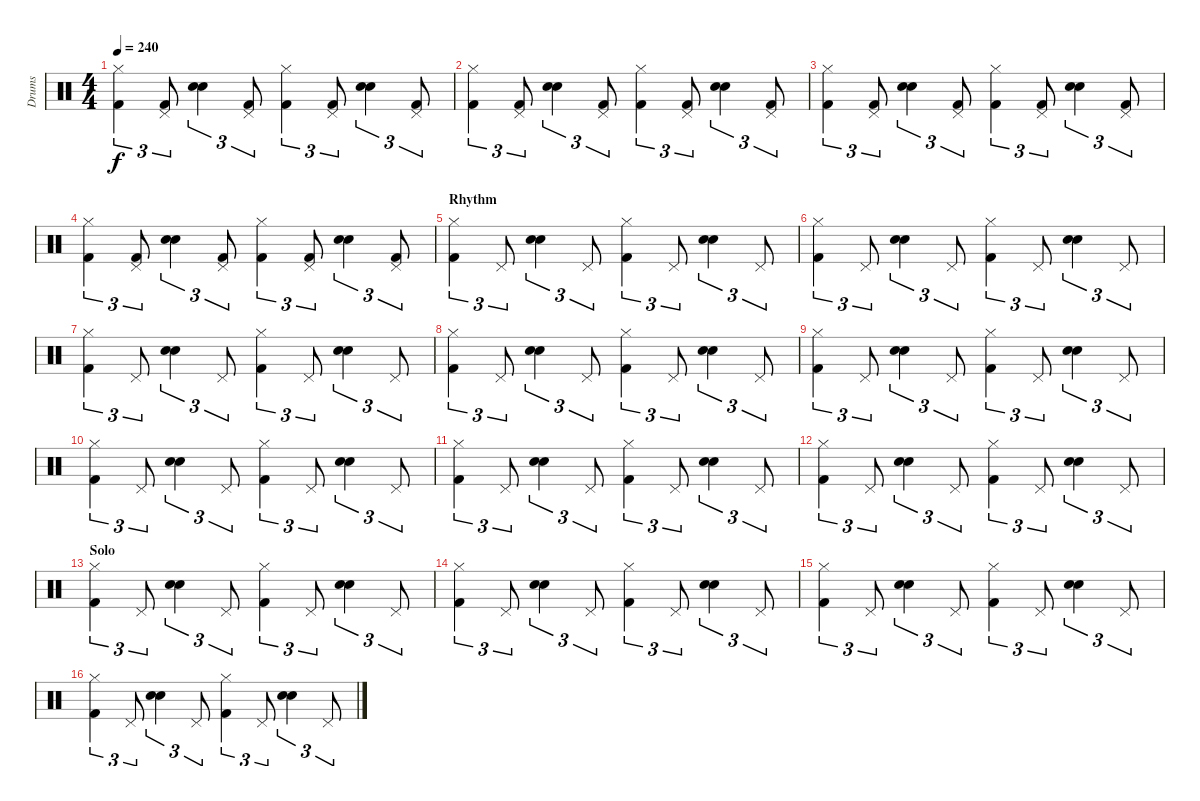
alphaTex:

\track ("Drums" "Drums") {instrument percussion}
\staff {score}
\articulation defaults
\ts (4 4)
\tempo 240
\clef neutral
\ks c
("Hi-Hat (closed)" "Kick (hit) 2").4{tu (3 2) dy f} ("Pedal Hi-Hat (hit)" "Kick (hit) 2").8{tu (3 2)} ("Hand Clap (hit)" "Snare (hit) 2").4{tu (3 2)} ("Pedal Hi-Hat (hit)" "Kick (hit) 2").8{tu (3 2)} ("Hi-Hat (closed)" "Kick (hit) 2").4{tu (3 2)} ("Pedal Hi-Hat (hit)" "Kick (hit) 2").8{tu (3 2)} ("Hand Clap (hit)" "Snare (hit) 2").4{tu (3 2)} ("Pedal Hi-Hat (hit)" "Kick (hit) 2").8{tu (3 2)} |
("Hi-Hat (closed)" "Kick (hit) 2").4{tu (3 2)} ("Pedal Hi-Hat (hit)" "Kick (hit) 2").8{tu (3 2)} ("Hand Clap (hit)" "Snare (hit) 2").4{tu (3 2)} ("Pedal Hi-Hat (hit)" "Kick (hit) 2").8{tu (3 2)} ("Hi-Hat (closed)" "Kick (hit) 2").4{tu (3 2)} ("Pedal Hi-Hat (hit)" "Kick (hit) 2").8{tu (3 2)} ("Hand Clap (hit)" "Snare (hit) 2").4{tu (3 2)} ("Pedal Hi-Hat (hit)" "Kick (hit) 2").8{tu (3 2)} |
("Hi-Hat (closed)" "Kick (hit) 2").4{tu (3 2)} ("Pedal Hi-Hat (hit)" "Kick (hit) 2").8{tu (3 2)} ("Hand Clap (hit)" "Snare (hit) 2").4{tu (3 2)} ("Pedal Hi-Hat (hit)" "Kick (hit) 2").8{tu (3 2)} ("Hi-Hat (closed)" "Kick (hit) 2").4{tu (3 2)} ("Pedal Hi-Hat (hit)" "Kick (hit) 2").8{tu (3 2)} ("Hand Clap (hit)" "Snare (hit) 2").4{tu (3 2)} ("Pedal Hi-Hat (hit)" "Kick (hit) 2").8{tu (3 2)} |
("Hi-Hat (closed)" "Kick (hit) 2").4{tu (3 2)} ("Pedal Hi-Hat (hit)" "Kick (hit) 2").8{tu (3 2)} ("Hand Clap (hit)" "Snare (hit) 2").4{tu (3 2)} ("Pedal Hi-Hat (hit)" "Kick (hit) 2").8{tu (3 2)} ("Hi-Hat (closed)" "Kick (hit) 2").4{tu (3 2)} ("Pedal Hi-Hat (hit)" "Kick (hit) 2").8{tu (3 2)} ("Hand Clap (hit)" "Snare (hit) 2").4{tu (3 2)} ("Pedal Hi-Hat (hit)" "Kick (hit) 2").8{tu (3 2)} |
\section ("" "Rhythm")
("Hi-Hat (closed)" "Kick (hit) 2").4{tu (3 2)} "Pedal Hi-Hat (hit)".8{tu (3 2)} ("Hand Clap (hit)" "Snare (hit) 2").4{tu (3 2)} "Pedal Hi-Hat (hit)".8{tu (3 2)} ("Hi-Hat (closed)" "Kick (hit) 2").4{tu (3 2)} "Pedal Hi-Hat (hit)".8{tu (3 2)} ("Hand Clap (hit)" "Snare (hit) 2").4{tu (3 2)} "Pedal Hi-Hat (hit)".8{tu (3 2)} |
("Hi-Hat (closed)" "Kick (hit) 2").4{tu (3 2)} "Pedal Hi-Hat (hit)".8{tu (3 2)} ("Hand Clap (hit)" "Snare (hit) 2").4{tu (3 2)} "Pedal Hi-Hat (hit)".8{tu (3 2)} ("Hi-Hat (closed)" "Kick (hit) 2").4{tu (3 2)} "Pedal Hi-Hat (hit)".8{tu (3 2)} ("Hand Clap (hit)" "Snare (hit) 2").4{tu (3 2)} "Pedal Hi-Hat (hit)".8{tu (3 2)} |
("Hi-Hat (closed)" "Kick (hit) 2").4{tu (3 2)} "Pedal Hi-Hat (hit)".8{tu (3 2)} ("Hand Clap (hit)" "Snare (hit) 2").4{tu (3 2)} "Pedal Hi-Hat (hit)".8{tu (3 2)} ("Hi-Hat (closed)" "Kick (hit) 2").4{tu (3 2)} "Pedal Hi-Hat (hit)".8{tu (3 2)} ("Hand Clap (hit)" "Snare (hit) 2").4{tu (3 2)} "Pedal Hi-Hat (hit)".8{tu (3 2)} |
("Hi-Hat (closed)" "Kick (hit) 2").4{tu (3 2)} "Pedal Hi-Hat (hit)".8{tu (3 2)} ("Hand Clap (hit)" "Snare (hit) 2").4{tu (3 2)} "Pedal Hi-Hat (hit)".8{tu (3 2)} ("Hi-Hat (closed)" "Kick (hit) 2").4{tu (3 2)} "Pedal Hi-Hat (hit)".8{tu (3 2)} ("Hand Clap (hit)" "Snare (hit) 2").4{tu (3 2)} "Pedal Hi-Hat (hit)".8{tu (3 2)} |
("Hi-Hat (closed)" "Kick (hit) 2").4{tu (3 2)} "Pedal Hi-Hat (hit)".8{tu (3 2)} ("Hand Clap (hit)" "Snare (hit) 2").4{tu (3 2)} "Pedal Hi-Hat (hit)".8{tu (3 2)} ("Hi-Hat (closed)" "Kick (hit) 2").4{tu (3 2)} "Pedal Hi-Hat (hit)".8{tu (3 2)} ("Hand Clap (hit)" "Snare (hit) 2").4{tu (3 2)} "Pedal Hi-Hat (hit)".8{tu (3 2)} |
("Hi-Hat (closed)" "Kick (hit) 2").4{tu (3 2)} "Pedal Hi-Hat (hit)".8{tu (3 2)} ("Hand Clap (hit)" "Snare (hit) 2").4{tu (3 2)} "Pedal Hi-Hat (hit)".8{tu (3 2)} ("Hi-Hat (closed)" "Kick (hit) 2").4{tu (3 2)} "Pedal Hi-Hat (hit)".8{tu (3 2)} ("Hand Clap (hit)" "Snare (hit) 2").4{tu (3 2)} "Pedal Hi-Hat (hit)".8{tu (3 2)} |
("Hi-Hat (closed)" "Kick (hit) 2").4{tu (3 2)} "Pedal Hi-Hat (hit)".8{tu (3 2)} ("Hand Clap (hit)" "Snare (hit) 2").4{tu (3 2)} "Pedal Hi-Hat (hit)".8{tu (3 2)} ("Hi-Hat (closed)" "Kick (hit) 2").4{tu (3 2)} "Pedal Hi-Hat (hit)".8{tu (3 2)} ("Hand Clap (hit)" "Snare (hit) 2").4{tu (3 2)} "Pedal Hi-Hat (hit)".8{tu (3 2)} |
("Hi-Hat (closed)" "Kick (hit) 2").4{tu (3 2)} "Pedal Hi-Hat (hit)".8{tu (3 2)} ("Hand Clap (hit)" "Snare (hit) 2").4{tu (3 2)} "Pedal Hi-Hat (hit)".8{tu (3 2)} ("Hi-Hat (closed)" "Kick (hit) 2").4{tu (3 2)} "Pedal Hi-Hat (hit)".8{tu (3 2)} ("Hand Clap (hit)" "Snare (hit) 2").4{tu (3 2)} "Pedal Hi-Hat (hit)".8{tu (3 2)} |
\section ("" "Solo")
("Hi-Hat (closed)" "Kick (hit) 2").4{tu (3 2)} "Pedal Hi-Hat (hit)".8{tu (3 2)} ("Hand Clap (hit)" "Snare (hit) 2").4{tu (3 2)} "Pedal Hi-Hat (hit)".8{tu (3 2)} ("Hi-Hat (closed)" "Kick (hit) 2").4{tu (3 2)} "Pedal Hi-Hat (hit)".8{tu (3 2)} ("Hand Clap (hit)" "Snare (hit) 2").4{tu (3 2)} "Pedal Hi-Hat (hit)".8{tu (3 2)} |
("Hi-Hat (closed)" "Kick (hit) 2").4{tu (3 2)} "Pedal Hi-Hat (hit)".8{tu (3 2)} ("Hand Clap (hit)" "Snare (hit) 2").4{tu (3 2)} "Pedal Hi-Hat (hit)".8{tu (3 2)} ("Hi-Hat (closed)" "Kick (hit) 2").4{tu (3 2)} "Pedal Hi-Hat (hit)".8{tu (3 2)} ("Hand Clap (hit)" "Snare (hit) 2").4{tu (3 2)} "Pedal Hi-Hat (hit)".8{tu (3 2)} |
("Hi-Hat (closed)" "Kick (hit) 2").4{tu (3 2)} "Pedal Hi-Hat (hit)".8{tu (3 2)} ("Hand Clap (hit)" "Snare (hit) 2").4{tu (3 2)} "Pedal Hi-Hat (hit)".8{tu (3 2)} ("Hi-Hat (closed)" "Kick (hit) 2").4{tu (3 2)} "Pedal Hi-Hat (hit)".8{tu (3 2)} ("Hand Clap (hit)" "Snare (hit) 2").4{tu (3 2)} "Pedal Hi-Hat (hit)".8{tu (3 2)} |
("Hi-Hat (closed)" "Kick (hit) 2").4{tu (3 2)} "Pedal Hi-Hat (hit)".8{tu (3 2)} ("Hand Clap (hit)" "Snare (hit) 2").4{tu (3 2)} "Pedal Hi-Hat (hit)".8{tu (3 2)} ("Hi-Hat (closed)" "Kick (hit) 2").4{tu (3 2)} "Pedal Hi-Hat (hit)".8{tu (3 2)} ("Hand Clap (hit)" "Snare (hit) 2").4{tu (3 2)} "Pedal Hi-Hat (hit)".8{tu (3 2)}
